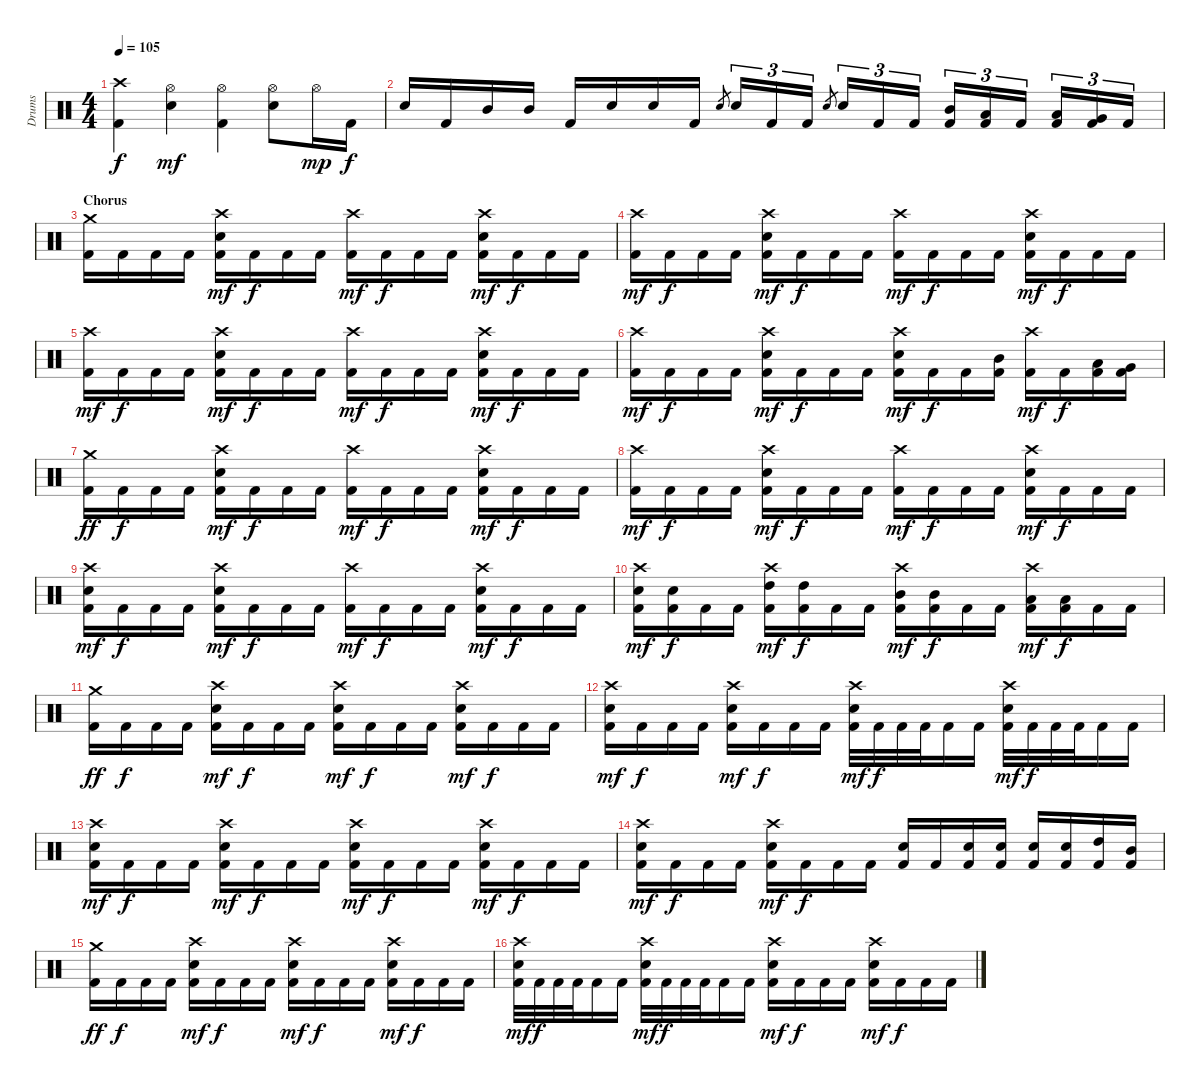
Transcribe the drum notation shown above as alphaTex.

\track ("Drums" "Drums") {instrument percussion}
\staff {score}
\articulation defaults
\ts (4 4)
\tempo 105
\clef neutral
\ks c
("Crash high (hit)" "Kick (hit) 2").4{dy f} ("Hi-Hat (open)" "Electric Snare (hit)").4{dy mf} ("Hi-Hat (open)" "Kick (hit) 2").4 ("Hi-Hat (open)" "Electric Snare (hit)").8 "Hi-Hat (open)".16{dy mp} "Kick (hit) 2".16{dy f} |
"Electric Snare (hit)".16 "Kick (hit) 2".16 "Mid Tom (hit)".16 "Mid Tom (hit)".16 "Kick (hit) 2".16 "Electric Snare (hit)".16 "Electric Snare (hit)".16 "Kick (hit) 2".16 "Electric Snare (hit)".8{gr} "Electric Snare (hit)".16{tu (3 2)} "Kick (hit) 2".16{tu (3 2)} "Kick (hit) 2".16{tu (3 2)} "Electric Snare (hit)".8{gr} "Electric Snare (hit)".16{tu (3 2)} "Kick (hit) 2".16{tu (3 2)} "Kick (hit) 2".16{tu (3 2)} ("Mid Tom (hit)" "Kick (hit) 2").16{tu (3 2)} ("Low Tom (hit)" "Kick (hit) 2").16{tu (3 2)} "Kick (hit) 2".16{tu (3 2)} ("Low Tom (hit)" "Kick (hit) 2").16{tu (3 2)} ("Very Low Tom (hit)" "Kick (hit) 2").16{tu (3 2)} "Kick (hit) 2".16{tu (3 2)} |
\section ("" "Chorus")
("Crash medium (hit)" "Kick (hit) 2").16 "Kick (hit) 2".16 "Kick (hit) 2".16 "Kick (hit) 2".16 ("Crash high (hit)" "Electric Snare (hit)" "Kick (hit) 2").16{dy mf} "Kick (hit) 2".16{dy f} "Kick (hit) 2".16 "Kick (hit) 2".16 ("Crash high (hit)" "Kick (hit) 2").16{dy mf} "Kick (hit) 2".16{dy f} "Kick (hit) 2".16 "Kick (hit) 2".16 ("Crash high (hit)" "Electric Snare (hit)" "Kick (hit) 2").16{dy mf} "Kick (hit) 2".16{dy f} "Kick (hit) 2".16 "Kick (hit) 2".16 |
("Crash high (hit)" "Kick (hit) 2").16{dy mf} "Kick (hit) 2".16{dy f} "Kick (hit) 2".16 "Kick (hit) 2".16 ("Crash high (hit)" "Electric Snare (hit)" "Kick (hit) 2").16{dy mf} "Kick (hit) 2".16{dy f} "Kick (hit) 2".16 "Kick (hit) 2".16 ("Crash high (hit)" "Kick (hit) 2").16{dy mf} "Kick (hit) 2".16{dy f} "Kick (hit) 2".16 "Kick (hit) 2".16 ("Crash high (hit)" "Electric Snare (hit)" "Kick (hit) 2").16{dy mf} "Kick (hit) 2".16{dy f} "Kick (hit) 2".16 "Kick (hit) 2".16 |
("Crash high (hit)" "Kick (hit) 2").16{dy mf} "Kick (hit) 2".16{dy f} "Kick (hit) 2".16 "Kick (hit) 2".16 ("Crash high (hit)" "Electric Snare (hit)" "Kick (hit) 2").16{dy mf} "Kick (hit) 2".16{dy f} "Kick (hit) 2".16 "Kick (hit) 2".16 ("Crash high (hit)" "Kick (hit) 2").16{dy mf} "Kick (hit) 2".16{dy f} "Kick (hit) 2".16 "Kick (hit) 2".16 ("Crash high (hit)" "Electric Snare (hit)" "Kick (hit) 2").16{dy mf} "Kick (hit) 2".16{dy f} "Kick (hit) 2".16 "Kick (hit) 2".16 |
("Crash high (hit)" "Kick (hit) 2").16{dy mf} "Kick (hit) 2".16{dy f} "Kick (hit) 2".16 "Kick (hit) 2".16 ("Crash high (hit)" "Electric Snare (hit)" "Kick (hit) 2").16{dy mf} "Kick (hit) 2".16{dy f} "Kick (hit) 2".16 "Kick (hit) 2".16 ("Crash high (hit)" "Electric Snare (hit)" "Kick (hit) 2").16{dy mf} "Kick (hit) 2".16{dy f} "Kick (hit) 2".16 ("Mid Tom (hit)" "Kick (hit) 2").16 ("Crash high (hit)" "Kick (hit) 2").16{dy mf} "Kick (hit) 2".16{dy f} ("Low Tom (hit)" "Kick (hit) 2").16 ("Very Low Tom (hit)" "Kick (hit) 2").16 |
("Crash medium (hit)" "Kick (hit) 2").16{dy ff} "Kick (hit) 2".16{dy f} "Kick (hit) 2".16 "Kick (hit) 2".16 ("Crash high (hit)" "Electric Snare (hit)" "Kick (hit) 2").16{dy mf} "Kick (hit) 2".16{dy f} "Kick (hit) 2".16 "Kick (hit) 2".16 ("Crash high (hit)" "Kick (hit) 2").16{dy mf} "Kick (hit) 2".16{dy f} "Kick (hit) 2".16 "Kick (hit) 2".16 ("Crash high (hit)" "Electric Snare (hit)" "Kick (hit) 2").16{dy mf} "Kick (hit) 2".16{dy f} "Kick (hit) 2".16 "Kick (hit) 2".16 |
("Crash high (hit)" "Kick (hit) 2").16{dy mf} "Kick (hit) 2".16{dy f} "Kick (hit) 2".16 "Kick (hit) 2".16 ("Crash high (hit)" "Electric Snare (hit)" "Kick (hit) 2").16{dy mf} "Kick (hit) 2".16{dy f} "Kick (hit) 2".16 "Kick (hit) 2".16 ("Crash high (hit)" "Kick (hit) 2").16{dy mf} "Kick (hit) 2".16{dy f} "Kick (hit) 2".16 "Kick (hit) 2".16 ("Crash high (hit)" "Electric Snare (hit)" "Kick (hit) 2").16{dy mf} "Kick (hit) 2".16{dy f} "Kick (hit) 2".16 "Kick (hit) 2".16 |
("Crash high (hit)" "Electric Snare (hit)" "Kick (hit) 2").16{dy mf} "Kick (hit) 2".16{dy f} "Kick (hit) 2".16 "Kick (hit) 2".16 ("Crash high (hit)" "Electric Snare (hit)" "Kick (hit) 2").16{dy mf} "Kick (hit) 2".16{dy f} "Kick (hit) 2".16 "Kick (hit) 2".16 ("Crash high (hit)" "Kick (hit) 2").16{dy mf} "Kick (hit) 2".16{dy f} "Kick (hit) 2".16 "Kick (hit) 2".16 ("Crash high (hit)" "Electric Snare (hit)" "Kick (hit) 2").16{dy mf} "Kick (hit) 2".16{dy f} "Kick (hit) 2".16 "Kick (hit) 2".16 |
("Crash high (hit)" "Electric Snare (hit)" "Kick (hit) 2").16{dy mf} ("Electric Snare (hit)" "Kick (hit) 2").16{dy f} "Kick (hit) 2".16 "Kick (hit) 2".16 ("Crash high (hit)" "High Tom (hit)" "Kick (hit) 2").16{dy mf} ("High Tom (hit)" "Kick (hit) 2").16{dy f} "Kick (hit) 2".16 "Kick (hit) 2".16 ("Crash high (hit)" "Mid Tom (hit)" "Kick (hit) 2").16{dy mf} ("Mid Tom (hit)" "Kick (hit) 2").16{dy f} "Kick (hit) 2".16 "Kick (hit) 2".16 ("Crash high (hit)" "Low Tom (hit)" "Kick (hit) 2").16{dy mf} ("Low Tom (hit)" "Kick (hit) 2").16{dy f} "Kick (hit) 2".16 "Kick (hit) 2".16 |
("Crash medium (hit)" "Kick (hit) 2").16{dy ff} "Kick (hit) 2".16{dy f} "Kick (hit) 2".16 "Kick (hit) 2".16 ("Crash high (hit)" "Electric Snare (hit)" "Kick (hit) 2").16{dy mf} "Kick (hit) 2".16{dy f} "Kick (hit) 2".16 "Kick (hit) 2".16 ("Crash high (hit)" "Electric Snare (hit)" "Kick (hit) 2").16{dy mf} "Kick (hit) 2".16{dy f} "Kick (hit) 2".16 "Kick (hit) 2".16 ("Crash high (hit)" "Electric Snare (hit)" "Kick (hit) 2").16{dy mf} "Kick (hit) 2".16{dy f} "Kick (hit) 2".16 "Kick (hit) 2".16 |
("Crash high (hit)" "Electric Snare (hit)" "Kick (hit) 2").16{dy mf} "Kick (hit) 2".16{dy f} "Kick (hit) 2".16 "Kick (hit) 2".16 ("Crash high (hit)" "Electric Snare (hit)" "Kick (hit) 2").16{dy mf} "Kick (hit) 2".16{dy f} "Kick (hit) 2".16 "Kick (hit) 2".16 ("Crash high (hit)" "Electric Snare (hit)" "Kick (hit) 2").32{dy mf} "Kick (hit) 2".32{dy f} "Kick (hit) 2".32 "Kick (hit) 2".32 "Kick (hit) 2".16 "Kick (hit) 2".16 ("Crash high (hit)" "Electric Snare (hit)" "Kick (hit) 2").32{dy mf} "Kick (hit) 2".32{dy f} "Kick (hit) 2".32 "Kick (hit) 2".32 "Kick (hit) 2".16 "Kick (hit) 2".16 |
("Crash high (hit)" "Electric Snare (hit)" "Kick (hit) 2").16{dy mf} "Kick (hit) 2".16{dy f} "Kick (hit) 2".16 "Kick (hit) 2".16 ("Crash high (hit)" "Electric Snare (hit)" "Kick (hit) 2").16{dy mf} "Kick (hit) 2".16{dy f} "Kick (hit) 2".16 "Kick (hit) 2".16 ("Crash high (hit)" "Electric Snare (hit)" "Kick (hit) 2").16{dy mf} "Kick (hit) 2".16{dy f} "Kick (hit) 2".16 "Kick (hit) 2".16 ("Crash high (hit)" "Electric Snare (hit)" "Kick (hit) 2").16{dy mf} "Kick (hit) 2".16{dy f} "Kick (hit) 2".16 "Kick (hit) 2".16 |
("Crash high (hit)" "Electric Snare (hit)" "Kick (hit) 2").16{dy mf} "Kick (hit) 2".16{dy f} "Kick (hit) 2".16 "Kick (hit) 2".16 ("Crash high (hit)" "Electric Snare (hit)" "Kick (hit) 2").16{dy mf} "Kick (hit) 2".16{dy f} "Kick (hit) 2".16 "Kick (hit) 2".16 ("Electric Snare (hit)" "Kick (hit) 2").16 "Kick (hit) 2".16 ("Electric Snare (hit)" "Kick (hit) 2").16 ("Electric Snare (hit)" "Kick (hit) 2").16 ("Electric Snare (hit)" "Kick (hit) 2").16 ("Electric Snare (hit)" "Kick (hit) 2").16 ("High Tom (hit)" "Kick (hit) 2").16 ("Mid Tom (hit)" "Kick (hit) 2").16 |
("Crash medium (hit)" "Kick (hit) 2").16{dy ff} "Kick (hit) 2".16{dy f} "Kick (hit) 2".16 "Kick (hit) 2".16 ("Crash high (hit)" "Electric Snare (hit)" "Kick (hit) 2").16{dy mf} "Kick (hit) 2".16{dy f} "Kick (hit) 2".16 "Kick (hit) 2".16 ("Crash high (hit)" "Electric Snare (hit)" "Kick (hit) 2").16{dy mf} "Kick (hit) 2".16{dy f} "Kick (hit) 2".16 "Kick (hit) 2".16 ("Crash high (hit)" "Electric Snare (hit)" "Kick (hit) 2").16{dy mf} "Kick (hit) 2".16{dy f} "Kick (hit) 2".16 "Kick (hit) 2".16 |
("Crash high (hit)" "Electric Snare (hit)" "Kick (hit) 2").32{dy mf} "Kick (hit) 2".32{dy f} "Kick (hit) 2".32 "Kick (hit) 2".32 "Kick (hit) 2".16 "Kick (hit) 2".16 ("Crash high (hit)" "Electric Snare (hit)" "Kick (hit) 2").32{dy mf} "Kick (hit) 2".32{dy f} "Kick (hit) 2".32 "Kick (hit) 2".32 "Kick (hit) 2".16 "Kick (hit) 2".16 ("Crash high (hit)" "Electric Snare (hit)" "Kick (hit) 2").16{dy mf} "Kick (hit) 2".16{dy f} "Kick (hit) 2".16 "Kick (hit) 2".16 ("Crash high (hit)" "Electric Snare (hit)" "Kick (hit) 2").16{dy mf} "Kick (hit) 2".16{dy f} "Kick (hit) 2".16 "Kick (hit) 2".16
